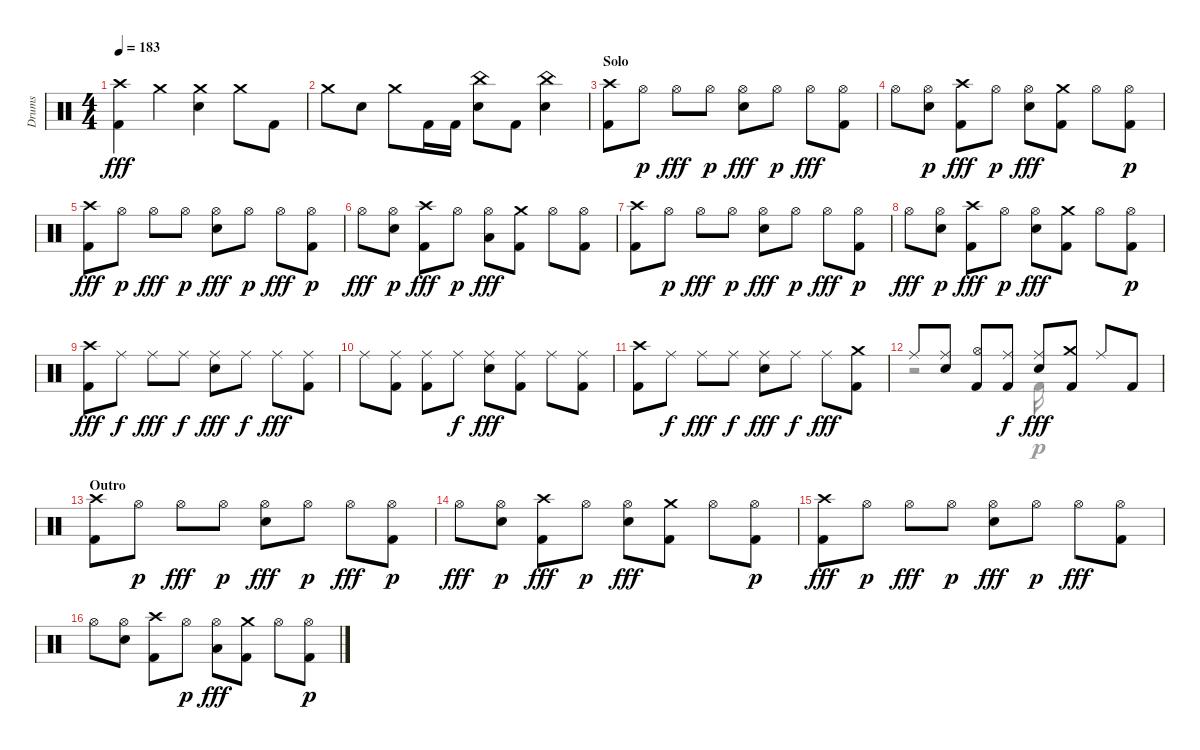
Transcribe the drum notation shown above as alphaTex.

\track ("Drums" "Drums") {instrument percussion}
\staff {score}
\articulation defaults
\voice
\ts (4 4)
\tempo 183
\clef neutral
\ks aminor
("Crash high (hit)" "Kick (hit) 2").4{dy fff} "Crash medium (hit)".4 ("Crash medium (hit)" "Snare (hit) 2").4 "Crash medium (hit)".8 "Kick (hit) 2".8 |
"Crash medium (hit)".8 "Snare (hit) 2".8 "Crash medium (hit)".8 "Kick (hit) 2".16 "Kick (hit) 2".16 ("China (hit)" "Snare (hit) 2").8 "Kick (hit) 2".8 ("China (hit)" "Snare (hit) 2").4 |
\section ("" "Solo")
("Kick (hit) 2" "Crash high (hit)").8 "Hi-Hat (open)".8{dy p} "Hi-Hat (open)".8{dy fff} "Hi-Hat (open)".8{dy p} ("Snare (hit) 2" "Hi-Hat (open)").8{dy fff} "Hi-Hat (open)".8{dy p} "Hi-Hat (open)".8{dy fff} ("Kick (hit) 2" "Hi-Hat (open)").8 |
"Hi-Hat (open)".8 ("Snare (hit) 2" "Hi-Hat (open)").8{dy p} ("Crash high (hit)" "Kick (hit) 2").8{dy fff} "Hi-Hat (open)".8{dy p} ("Hi-Hat (open)" "Snare (hit) 2").8{dy fff} ("Kick (hit) 2" "Crash medium (hit)").8 "Hi-Hat (open)".8 ("Hi-Hat (open)" "Kick (hit) 2").8{dy p} |
("Kick (hit) 2" "Crash high (hit)").8{dy fff} "Hi-Hat (open)".8{dy p} "Hi-Hat (open)".8{dy fff} "Hi-Hat (open)".8{dy p} ("Snare (hit) 2" "Hi-Hat (open)").8{dy fff} "Hi-Hat (open)".8{dy p} "Hi-Hat (open)".8{dy fff} ("Kick (hit) 2" "Hi-Hat (open)").8{dy p} |
"Hi-Hat (open)".8{dy fff} ("Hi-Hat (open)" "Snare (hit) 2").8{dy p} ("Kick (hit) 2" "Crash high (hit)").8{dy fff} "Hi-Hat (open)".8{dy p} ("Hi-Hat (open)" "Low Floor Tom (hit)").8{dy fff} ("Kick (hit) 2" "Crash medium (hit)").8 "Hi-Hat (open)".8 ("Kick (hit) 2" "Hi-Hat (open)").8 |
("Crash high (hit)" "Kick (hit) 2").8 "Hi-Hat (open)".8{dy p} "Hi-Hat (open)".8{dy fff} "Hi-Hat (open)".8{dy p} ("Hi-Hat (open)" "Snare (hit) 2").8{dy fff} "Hi-Hat (open)".8{dy p} "Hi-Hat (open)".8{dy fff} ("Kick (hit) 2" "Hi-Hat (open)").8{dy p} |
"Hi-Hat (open)".8{dy fff} ("Snare (hit) 2" "Hi-Hat (open)").8{dy p} ("Crash high (hit)" "Kick (hit) 2").8{dy fff} "Hi-Hat (open)".8{dy p} ("Hi-Hat (open)" "Snare (hit) 2").8{dy fff} ("Crash medium (hit)" "Kick (hit) 2").8 "Hi-Hat (open)".8 ("Kick (hit) 2" "Hi-Hat (open)").8{dy p} |
("Kick (hit) 2" "Crash high (hit)").8{dy fff} "Ride (middle)".8{dy f} "Ride (middle)".8{dy fff} "Ride (middle)".8{dy f} ("Ride (middle)" "Snare (hit) 2").8{dy fff} "Ride (middle)".8{dy f} "Ride (middle)".8{dy fff} ("Ride (middle)" "Kick (hit) 2").8 |
"Ride (middle)".8 ("Kick (hit) 2" "Ride (middle)").8 ("Kick (hit) 2" "Ride (middle)").8 "Ride (middle)".8{dy f} ("Ride (middle)" "Snare (hit) 2").8{dy fff} ("Ride (middle)" "Kick (hit) 2").8 "Ride (middle)".8 ("Ride (middle)" "Kick (hit) 2").8 |
("Crash high (hit)" "Kick (hit) 2").8 "Ride (middle)".8{dy f} "Ride (middle)".8{dy fff} "Ride (middle)".8{dy f} ("Ride (middle)" "Snare (hit) 2").8{dy fff} "Ride (middle)".8{dy f} "Ride (middle)".8{dy fff} ("Kick (hit) 2" "Crash medium (hit)").8 |
"Ride (middle)".8 ("Ride (middle)" "Snare (hit) 2").8 ("Hi-Hat (open)" "Kick (hit) 2").8 ("Kick (hit) 2" "Ride (middle)").8{dy f} ("Snare (hit) 2" "Ride (middle)").8{dy fff} ("Kick (hit) 2" "Crash medium (hit)").8 "Ride (middle)".8 "Kick (hit) 2".8 |
\section ("" "Outro")
("Crash high (hit)" "Kick (hit) 2").8 "Hi-Hat (open)".8{dy p} "Hi-Hat (open)".8{dy fff} "Hi-Hat (open)".8{dy p} ("Hi-Hat (open)" "Snare (hit) 2").8{dy fff} "Hi-Hat (open)".8{dy p} "Hi-Hat (open)".8{dy fff} ("Hi-Hat (open)" "Kick (hit) 2").8{dy p} |
"Hi-Hat (open)".8{dy fff} ("Snare (hit) 2" "Hi-Hat (open)").8{dy p} ("Kick (hit) 2" "Crash high (hit)").8{dy fff} "Hi-Hat (open)".8{dy p} ("Snare (hit) 2" "Hi-Hat (open)").8{dy fff} ("Crash medium (hit)" "Kick (hit) 2").8 "Hi-Hat (open)".8 ("Hi-Hat (open)" "Kick (hit) 2").8{dy p} |
("Kick (hit) 2" "Crash high (hit)").8{dy fff} "Hi-Hat (open)".8{dy p} "Hi-Hat (open)".8{dy fff} "Hi-Hat (open)".8{dy p} ("Hi-Hat (open)" "Snare (hit) 2").8{dy fff} "Hi-Hat (open)".8{dy p} "Hi-Hat (open)".8{dy fff} ("Hi-Hat (open)" "Kick (hit) 2").8 |
"Hi-Hat (open)".8 ("Hi-Hat (open)" "Snare (hit) 2").8 ("Kick (hit) 2" "Crash high (hit)").8 "Hi-Hat (open)".8{dy p} ("Hi-Hat (open)" "Low Floor Tom (hit)").8{dy fff} ("Crash medium (hit)" "Kick (hit) 2").8 "Hi-Hat (open)".8 ("Kick (hit) 2" "Hi-Hat (open)").8{dy p}
\voice
\clef neutral
\ottava regular
\simile none
\ks aminor
|
|
|
|
|
|
|
|
|
|
|
r.2 "Kick (hit) 2".16 |
|
|
|
